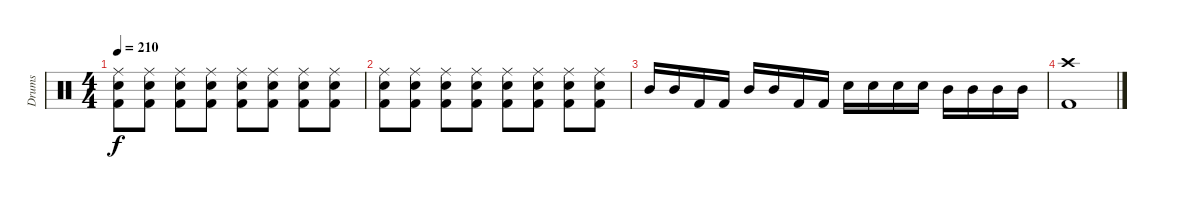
\track ("Drums" "Drums") {instrument percussion}
\staff {score}
\articulation defaults
\ts (4 4)
\tempo 210
\clef neutral
\ks c
("Ride (middle)" "Snare (hit) 2" "Kick (hit) 2").8{dy f} ("Ride (middle)" "Snare (hit) 2" "Kick (hit) 2").8 ("Ride (middle)" "Snare (hit) 2" "Kick (hit) 2").8 ("Ride (middle)" "Snare (hit) 2" "Kick (hit) 2").8 ("Ride (middle)" "Snare (hit) 2" "Kick (hit) 2").8 ("Ride (middle)" "Snare (hit) 2" "Kick (hit) 2").8 ("Ride (middle)" "Snare (hit) 2" "Kick (hit) 2").8 ("Ride (middle)" "Snare (hit) 2" "Kick (hit) 2").8 |
("Ride (middle)" "Snare (hit) 2" "Kick (hit) 2").8 ("Ride (middle)" "Snare (hit) 2" "Kick (hit) 2").8 ("Ride (middle)" "Snare (hit) 2" "Kick (hit) 2").8 ("Ride (middle)" "Snare (hit) 2" "Kick (hit) 2").8 ("Ride (middle)" "Snare (hit) 2" "Kick (hit) 2").8 ("Ride (middle)" "Snare (hit) 2" "Kick (hit) 2").8 ("Ride (middle)" "Snare (hit) 2" "Kick (hit) 2").8 ("Ride (middle)" "Snare (hit) 2" "Kick (hit) 2").8 |
"Mid Tom (hit)".16 "Mid Tom (hit)".16 "Kick (hit) 2".16 "Kick (hit) 2".16 "Mid Tom (hit)".16 "Mid Tom (hit)".16 "Kick (hit) 2".16 "Kick (hit) 2".16 "Snare (hit) 2".16 "Snare (hit) 2".16 "Snare (hit) 2".16 "Snare (hit) 2".16 "Mid Tom (hit)".16 "Mid Tom (hit)".16 "Mid Tom (hit)".16 "Mid Tom (hit)".16 |
("Crash high (hit)" "Kick (hit) 2").1
